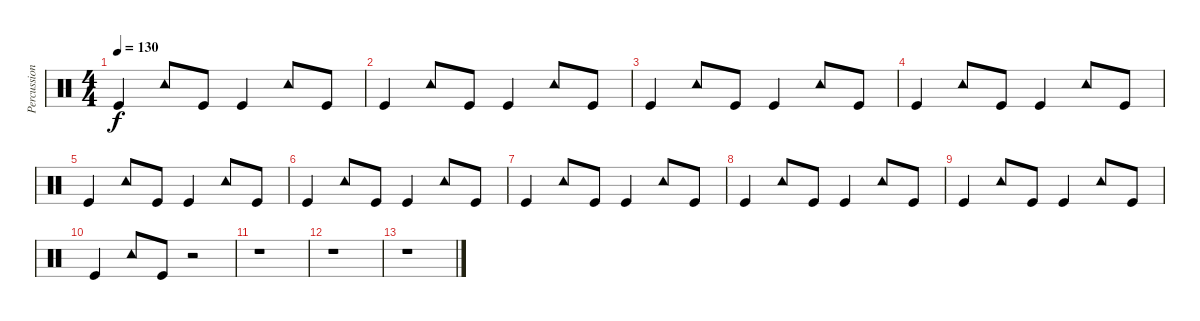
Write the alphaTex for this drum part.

\track ("Percussion" "Percussion") {instrument percussion}
\staff {score}
\articulation defaults
\ts (4 4)
\tempo 130
\clef neutral
\ks c "Kick (hit)".4{dy f} "Tambourine (hit)".8 "Kick (hit)".8 "Kick (hit)".4 "Tambourine (hit)".8 "Kick (hit)".8
|
"Kick (hit)".4 "Tambourine (hit)".8 "Kick (hit)".8 "Kick (hit)".4 "Tambourine (hit)".8 "Kick (hit)".8 |
"Kick (hit)".4 "Tambourine (hit)".8 "Kick (hit)".8 "Kick (hit)".4 "Tambourine (hit)".8 "Kick (hit)".8 |
"Kick (hit)".4 "Tambourine (hit)".8 "Kick (hit)".8 "Kick (hit)".4 "Tambourine (hit)".8 "Kick (hit)".8 |
"Kick (hit)".4 "Tambourine (hit)".8 "Kick (hit)".8 "Kick (hit)".4 "Tambourine (hit)".8 "Kick (hit)".8 |
"Kick (hit)".4 "Tambourine (hit)".8 "Kick (hit)".8 "Kick (hit)".4 "Tambourine (hit)".8 "Kick (hit)".8 |
"Kick (hit)".4 "Tambourine (hit)".8 "Kick (hit)".8 "Kick (hit)".4 "Tambourine (hit)".8 "Kick (hit)".8 |
"Kick (hit)".4 "Tambourine (hit)".8 "Kick (hit)".8 "Kick (hit)".4 "Tambourine (hit)".8 "Kick (hit)".8 |
"Kick (hit)".4 "Tambourine (hit)".8 "Kick (hit)".8 "Kick (hit)".4 "Tambourine (hit)".8 "Kick (hit)".8 |
"Kick (hit)".4 "Tambourine (hit)".8 "Kick (hit)".8 r.2 |
r.1 |
r.1 |
r.1
